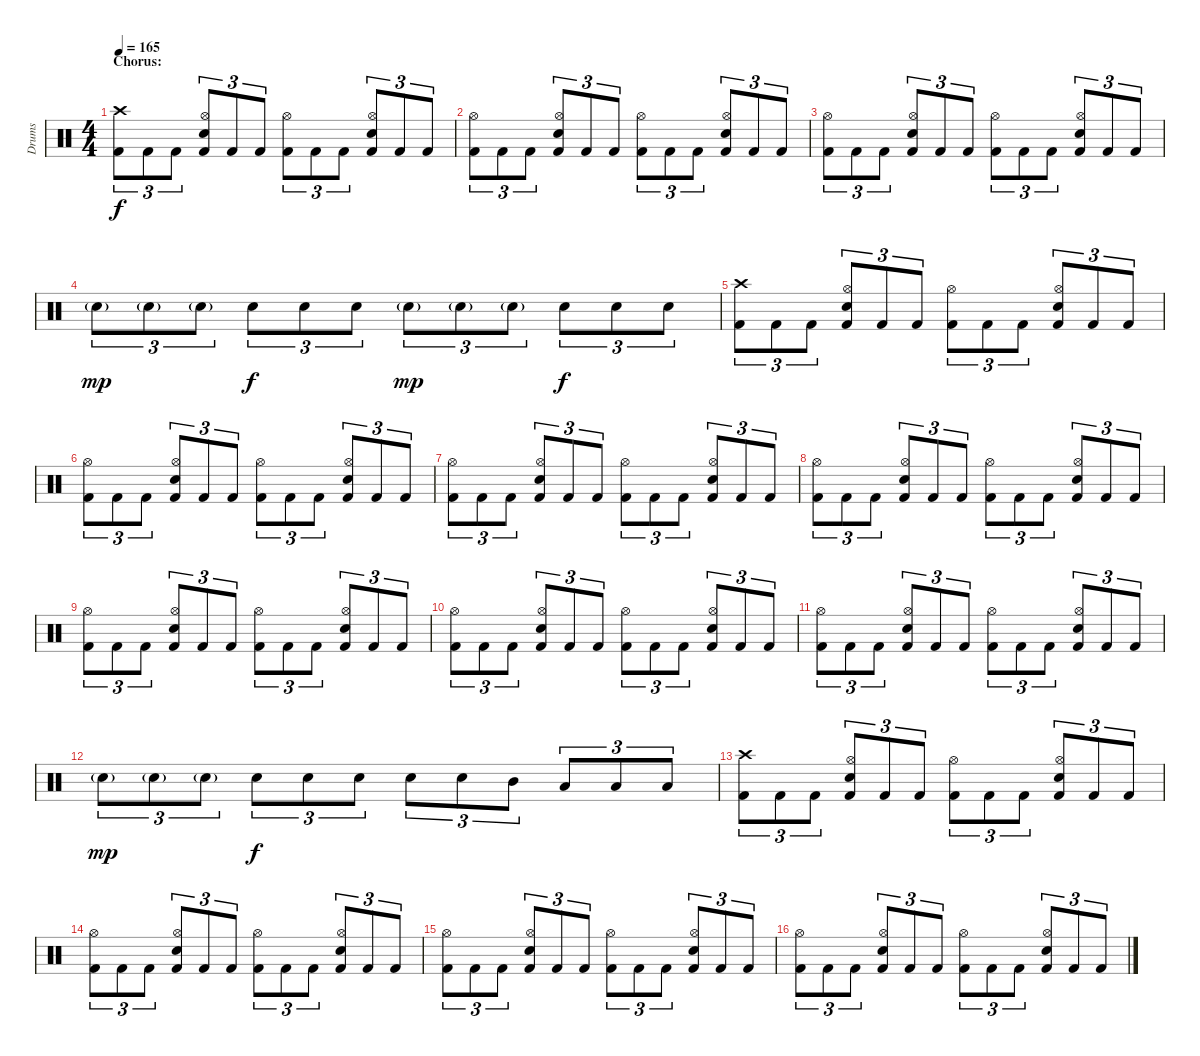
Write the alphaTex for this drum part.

\track ("Drums" "Drums") {instrument percussion}
\staff {score}
\articulation defaults
\ts (4 4)
\section ("" "Chorus:")
\tempo 165
\clef neutral
\ks c
("Crash high (hit)" "Kick (hit) 2").8{tu (3 2) dy f} "Kick (hit) 2".8{tu (3 2)} "Kick (hit) 2".8{tu (3 2)} ("Hi-Hat (open)" "Electric Snare (hit)" "Kick (hit) 2").8{tu (3 2)} "Kick (hit) 2".8{tu (3 2)} "Kick (hit) 2".8{tu (3 2)} ("Hi-Hat (open)" "Kick (hit) 2").8{tu (3 2)} "Kick (hit) 2".8{tu (3 2)} "Kick (hit) 2".8{tu (3 2)} ("Hi-Hat (open)" "Electric Snare (hit)" "Kick (hit) 2").8{tu (3 2)} "Kick (hit) 2".8{tu (3 2)} "Kick (hit) 2".8{tu (3 2)} |
("Hi-Hat (open)" "Kick (hit) 2").8{tu (3 2)} "Kick (hit) 2".8{tu (3 2)} "Kick (hit) 2".8{tu (3 2)} ("Hi-Hat (open)" "Electric Snare (hit)" "Kick (hit) 2").8{tu (3 2)} "Kick (hit) 2".8{tu (3 2)} "Kick (hit) 2".8{tu (3 2)} ("Hi-Hat (open)" "Kick (hit) 2").8{tu (3 2)} "Kick (hit) 2".8{tu (3 2)} "Kick (hit) 2".8{tu (3 2)} ("Hi-Hat (open)" "Electric Snare (hit)" "Kick (hit) 2").8{tu (3 2)} "Kick (hit) 2".8{tu (3 2)} "Kick (hit) 2".8{tu (3 2)} |
("Hi-Hat (open)" "Kick (hit) 2").8{tu (3 2)} "Kick (hit) 2".8{tu (3 2)} "Kick (hit) 2".8{tu (3 2)} ("Hi-Hat (open)" "Electric Snare (hit)" "Kick (hit) 2").8{tu (3 2)} "Kick (hit) 2".8{tu (3 2)} "Kick (hit) 2".8{tu (3 2)} ("Hi-Hat (open)" "Kick (hit) 2").8{tu (3 2)} "Kick (hit) 2".8{tu (3 2)} "Kick (hit) 2".8{tu (3 2)} ("Hi-Hat (open)" "Electric Snare (hit)" "Kick (hit) 2").8{tu (3 2)} "Kick (hit) 2".8{tu (3 2)} "Kick (hit) 2".8{tu (3 2)} |
"Electric Snare (hit)"{g}.8{tu (3 2) dy mp} "Electric Snare (hit)"{g}.8{tu (3 2)} "Electric Snare (hit)"{g}.8{tu (3 2)} "Electric Snare (hit)".8{tu (3 2) dy f} "Electric Snare (hit)".8{tu (3 2)} "Electric Snare (hit)".8{tu (3 2)} "Electric Snare (hit)"{g}.8{tu (3 2) dy mp} "Electric Snare (hit)"{g}.8{tu (3 2)} "Electric Snare (hit)"{g}.8{tu (3 2)} "Electric Snare (hit)".8{tu (3 2) dy f} "Electric Snare (hit)".8{tu (3 2)} "Electric Snare (hit)".8{tu (3 2)} |
("Crash high (hit)" "Kick (hit) 2").8{tu (3 2)} "Kick (hit) 2".8{tu (3 2)} "Kick (hit) 2".8{tu (3 2)} ("Hi-Hat (open)" "Electric Snare (hit)" "Kick (hit) 2").8{tu (3 2)} "Kick (hit) 2".8{tu (3 2)} "Kick (hit) 2".8{tu (3 2)} ("Hi-Hat (open)" "Kick (hit) 2").8{tu (3 2)} "Kick (hit) 2".8{tu (3 2)} "Kick (hit) 2".8{tu (3 2)} ("Hi-Hat (open)" "Electric Snare (hit)" "Kick (hit) 2").8{tu (3 2)} "Kick (hit) 2".8{tu (3 2)} "Kick (hit) 2".8{tu (3 2)} |
("Hi-Hat (open)" "Kick (hit) 2").8{tu (3 2)} "Kick (hit) 2".8{tu (3 2)} "Kick (hit) 2".8{tu (3 2)} ("Hi-Hat (open)" "Electric Snare (hit)" "Kick (hit) 2").8{tu (3 2)} "Kick (hit) 2".8{tu (3 2)} "Kick (hit) 2".8{tu (3 2)} ("Hi-Hat (open)" "Kick (hit) 2").8{tu (3 2)} "Kick (hit) 2".8{tu (3 2)} "Kick (hit) 2".8{tu (3 2)} ("Hi-Hat (open)" "Electric Snare (hit)" "Kick (hit) 2").8{tu (3 2)} "Kick (hit) 2".8{tu (3 2)} "Kick (hit) 2".8{tu (3 2)} |
("Hi-Hat (open)" "Kick (hit) 2").8{tu (3 2)} "Kick (hit) 2".8{tu (3 2)} "Kick (hit) 2".8{tu (3 2)} ("Hi-Hat (open)" "Electric Snare (hit)" "Kick (hit) 2").8{tu (3 2)} "Kick (hit) 2".8{tu (3 2)} "Kick (hit) 2".8{tu (3 2)} ("Hi-Hat (open)" "Kick (hit) 2").8{tu (3 2)} "Kick (hit) 2".8{tu (3 2)} "Kick (hit) 2".8{tu (3 2)} ("Hi-Hat (open)" "Electric Snare (hit)" "Kick (hit) 2").8{tu (3 2)} "Kick (hit) 2".8{tu (3 2)} "Kick (hit) 2".8{tu (3 2)} |
("Hi-Hat (open)" "Kick (hit) 2").8{tu (3 2)} "Kick (hit) 2".8{tu (3 2)} "Kick (hit) 2".8{tu (3 2)} ("Hi-Hat (open)" "Electric Snare (hit)" "Kick (hit) 2").8{tu (3 2)} "Kick (hit) 2".8{tu (3 2)} "Kick (hit) 2".8{tu (3 2)} ("Hi-Hat (open)" "Kick (hit) 2").8{tu (3 2)} "Kick (hit) 2".8{tu (3 2)} "Kick (hit) 2".8{tu (3 2)} ("Hi-Hat (open)" "Electric Snare (hit)" "Kick (hit) 2").8{tu (3 2)} "Kick (hit) 2".8{tu (3 2)} "Kick (hit) 2".8{tu (3 2)} |
("Hi-Hat (open)" "Kick (hit) 2").8{tu (3 2)} "Kick (hit) 2".8{tu (3 2)} "Kick (hit) 2".8{tu (3 2)} ("Hi-Hat (open)" "Electric Snare (hit)" "Kick (hit) 2").8{tu (3 2)} "Kick (hit) 2".8{tu (3 2)} "Kick (hit) 2".8{tu (3 2)} ("Hi-Hat (open)" "Kick (hit) 2").8{tu (3 2)} "Kick (hit) 2".8{tu (3 2)} "Kick (hit) 2".8{tu (3 2)} ("Hi-Hat (open)" "Electric Snare (hit)" "Kick (hit) 2").8{tu (3 2)} "Kick (hit) 2".8{tu (3 2)} "Kick (hit) 2".8{tu (3 2)} |
("Hi-Hat (open)" "Kick (hit) 2").8{tu (3 2)} "Kick (hit) 2".8{tu (3 2)} "Kick (hit) 2".8{tu (3 2)} ("Hi-Hat (open)" "Electric Snare (hit)" "Kick (hit) 2").8{tu (3 2)} "Kick (hit) 2".8{tu (3 2)} "Kick (hit) 2".8{tu (3 2)} ("Hi-Hat (open)" "Kick (hit) 2").8{tu (3 2)} "Kick (hit) 2".8{tu (3 2)} "Kick (hit) 2".8{tu (3 2)} ("Hi-Hat (open)" "Electric Snare (hit)" "Kick (hit) 2").8{tu (3 2)} "Kick (hit) 2".8{tu (3 2)} "Kick (hit) 2".8{tu (3 2)} |
("Hi-Hat (open)" "Kick (hit) 2").8{tu (3 2)} "Kick (hit) 2".8{tu (3 2)} "Kick (hit) 2".8{tu (3 2)} ("Hi-Hat (open)" "Electric Snare (hit)" "Kick (hit) 2").8{tu (3 2)} "Kick (hit) 2".8{tu (3 2)} "Kick (hit) 2".8{tu (3 2)} ("Hi-Hat (open)" "Kick (hit) 2").8{tu (3 2)} "Kick (hit) 2".8{tu (3 2)} "Kick (hit) 2".8{tu (3 2)} ("Hi-Hat (open)" "Electric Snare (hit)" "Kick (hit) 2").8{tu (3 2)} "Kick (hit) 2".8{tu (3 2)} "Kick (hit) 2".8{tu (3 2)} |
"Electric Snare (hit)"{g}.8{tu (3 2) dy mp} "Electric Snare (hit)"{g}.8{tu (3 2)} "Electric Snare (hit)"{g}.8{tu (3 2)} "Electric Snare (hit)".8{tu (3 2) dy f} "Electric Snare (hit)".8{tu (3 2)} "Electric Snare (hit)".8{tu (3 2)} "Electric Snare (hit)".8{tu (3 2)} "Electric Snare (hit)".8{tu (3 2)} "Mid Tom (hit)".8{tu (3 2)} "Low Tom (hit)".8{tu (3 2)} "Low Tom (hit)".8{tu (3 2)} "Low Tom (hit)".8{tu (3 2)} |
("Crash high (hit)" "Kick (hit) 2").8{tu (3 2)} "Kick (hit) 2".8{tu (3 2)} "Kick (hit) 2".8{tu (3 2)} ("Hi-Hat (open)" "Electric Snare (hit)" "Kick (hit) 2").8{tu (3 2)} "Kick (hit) 2".8{tu (3 2)} "Kick (hit) 2".8{tu (3 2)} ("Hi-Hat (open)" "Kick (hit) 2").8{tu (3 2)} "Kick (hit) 2".8{tu (3 2)} "Kick (hit) 2".8{tu (3 2)} ("Hi-Hat (open)" "Electric Snare (hit)" "Kick (hit) 2").8{tu (3 2)} "Kick (hit) 2".8{tu (3 2)} "Kick (hit) 2".8{tu (3 2)} |
("Hi-Hat (open)" "Kick (hit) 2").8{tu (3 2)} "Kick (hit) 2".8{tu (3 2)} "Kick (hit) 2".8{tu (3 2)} ("Hi-Hat (open)" "Electric Snare (hit)" "Kick (hit) 2").8{tu (3 2)} "Kick (hit) 2".8{tu (3 2)} "Kick (hit) 2".8{tu (3 2)} ("Hi-Hat (open)" "Kick (hit) 2").8{tu (3 2)} "Kick (hit) 2".8{tu (3 2)} "Kick (hit) 2".8{tu (3 2)} ("Hi-Hat (open)" "Electric Snare (hit)" "Kick (hit) 2").8{tu (3 2)} "Kick (hit) 2".8{tu (3 2)} "Kick (hit) 2".8{tu (3 2)} |
("Hi-Hat (open)" "Kick (hit) 2").8{tu (3 2)} "Kick (hit) 2".8{tu (3 2)} "Kick (hit) 2".8{tu (3 2)} ("Hi-Hat (open)" "Electric Snare (hit)" "Kick (hit) 2").8{tu (3 2)} "Kick (hit) 2".8{tu (3 2)} "Kick (hit) 2".8{tu (3 2)} ("Hi-Hat (open)" "Kick (hit) 2").8{tu (3 2)} "Kick (hit) 2".8{tu (3 2)} "Kick (hit) 2".8{tu (3 2)} ("Hi-Hat (open)" "Electric Snare (hit)" "Kick (hit) 2").8{tu (3 2)} "Kick (hit) 2".8{tu (3 2)} "Kick (hit) 2".8{tu (3 2)} |
("Hi-Hat (open)" "Kick (hit) 2").8{tu (3 2)} "Kick (hit) 2".8{tu (3 2)} "Kick (hit) 2".8{tu (3 2)} ("Hi-Hat (open)" "Electric Snare (hit)" "Kick (hit) 2").8{tu (3 2)} "Kick (hit) 2".8{tu (3 2)} "Kick (hit) 2".8{tu (3 2)} ("Hi-Hat (open)" "Kick (hit) 2").8{tu (3 2)} "Kick (hit) 2".8{tu (3 2)} "Kick (hit) 2".8{tu (3 2)} ("Hi-Hat (open)" "Electric Snare (hit)" "Kick (hit) 2").8{tu (3 2)} "Kick (hit) 2".8{tu (3 2)} "Kick (hit) 2".8{tu (3 2)}
